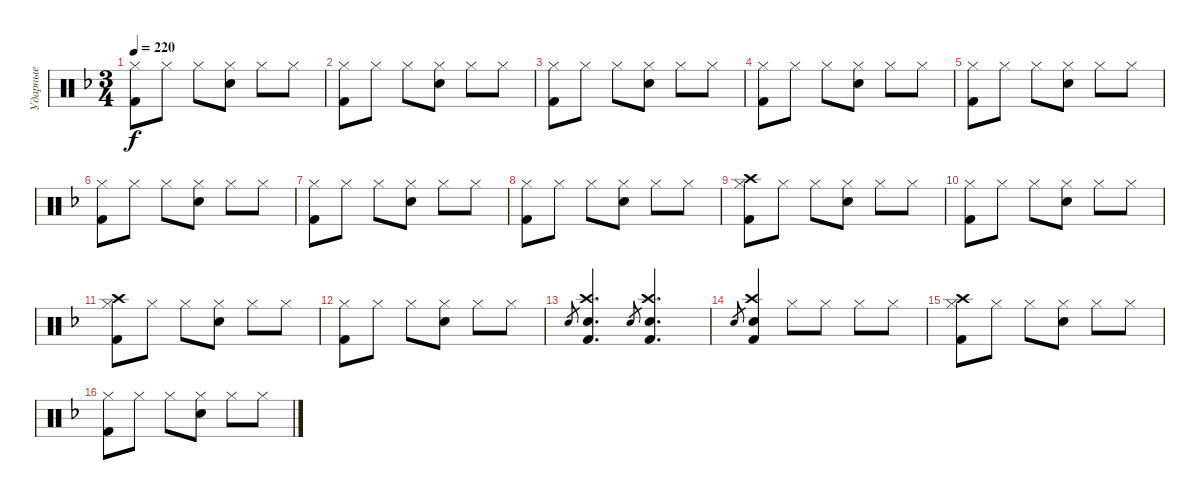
\track ("Ударные" "Ударные") {instrument percussion}
\staff {score}
\articulation defaults
\ts (3 4)
\tempo 220
\clef neutral
\ks f
("Hi-Hat (closed)" "Kick (hit) 2").8{dy f} "Hi-Hat (closed)".8 "Hi-Hat (closed)".8 ("Hi-Hat (closed)" "Electric Snare (hit)").8 "Hi-Hat (closed)".8 "Hi-Hat (closed)".8 |
("Hi-Hat (closed)" "Kick (hit) 2").8 "Hi-Hat (closed)".8 "Hi-Hat (closed)".8 ("Hi-Hat (closed)" "Electric Snare (hit)").8 "Hi-Hat (closed)".8 "Hi-Hat (closed)".8 |
("Hi-Hat (closed)" "Kick (hit) 2").8 "Hi-Hat (closed)".8 "Hi-Hat (closed)".8 ("Hi-Hat (closed)" "Electric Snare (hit)").8 "Hi-Hat (closed)".8 "Hi-Hat (closed)".8 |
("Hi-Hat (closed)" "Kick (hit) 2").8 "Hi-Hat (closed)".8 "Hi-Hat (closed)".8 ("Hi-Hat (closed)" "Electric Snare (hit)").8 "Hi-Hat (closed)".8 "Hi-Hat (closed)".8 |
("Hi-Hat (closed)" "Kick (hit) 2").8 "Hi-Hat (closed)".8 "Hi-Hat (closed)".8 ("Hi-Hat (closed)" "Electric Snare (hit)").8 "Hi-Hat (closed)".8 "Hi-Hat (closed)".8 |
("Hi-Hat (closed)" "Kick (hit) 2").8 "Hi-Hat (closed)".8 "Hi-Hat (closed)".8 ("Hi-Hat (closed)" "Electric Snare (hit)").8 "Hi-Hat (closed)".8 "Hi-Hat (closed)".8 |
("Hi-Hat (closed)" "Kick (hit) 2").8 "Hi-Hat (closed)".8 "Hi-Hat (closed)".8 ("Hi-Hat (closed)" "Electric Snare (hit)").8 "Hi-Hat (closed)".8 "Hi-Hat (closed)".8 |
("Hi-Hat (closed)" "Kick (hit) 2").8 "Hi-Hat (closed)".8 "Hi-Hat (closed)".8 ("Hi-Hat (closed)" "Electric Snare (hit)").8 "Hi-Hat (closed)".8 "Hi-Hat (closed)".8 |
("Crash high (hit)" "Hi-Hat (closed)" "Kick (hit) 2").8 "Hi-Hat (closed)".8 "Hi-Hat (closed)".8 ("Hi-Hat (closed)" "Electric Snare (hit)").8 "Hi-Hat (closed)".8 "Hi-Hat (closed)".8 |
("Hi-Hat (closed)" "Kick (hit) 2").8 "Hi-Hat (closed)".8 "Hi-Hat (closed)".8 ("Hi-Hat (closed)" "Electric Snare (hit)").8 "Hi-Hat (closed)".8 "Hi-Hat (closed)".8 |
("Crash high (hit)" "Hi-Hat (closed)" "Kick (hit) 2").8 "Hi-Hat (closed)".8 "Hi-Hat (closed)".8 ("Hi-Hat (closed)" "Electric Snare (hit)").8 "Hi-Hat (closed)".8 "Hi-Hat (closed)".8 |
("Hi-Hat (closed)" "Kick (hit) 2").8 "Hi-Hat (closed)".8 "Hi-Hat (closed)".8 ("Hi-Hat (closed)" "Electric Snare (hit)").8 "Hi-Hat (closed)".8 "Hi-Hat (closed)".8 |
"Snare (hit) 2".8{gr} ("Snare (hit) 2" "Crash high (hit)" "Kick (hit) 2").4{d} "Snare (hit) 2".8{gr} ("Snare (hit) 2" "Crash high (hit)" "Kick (hit) 2").4{d} |
"Snare (hit) 2".8{gr} ("Snare (hit) 2" "Crash high (hit)" "Kick (hit) 2").4 "Hi-Hat (closed)".8 "Hi-Hat (closed)".8 "Hi-Hat (closed)".8 "Hi-Hat (closed)".8 |
("Crash high (hit)" "Hi-Hat (closed)" "Kick (hit) 2").8 "Hi-Hat (closed)".8 "Hi-Hat (closed)".8 ("Hi-Hat (closed)" "Electric Snare (hit)").8 "Hi-Hat (closed)".8 "Hi-Hat (closed)".8 |
("Hi-Hat (closed)" "Kick (hit) 2").8 "Hi-Hat (closed)".8 "Hi-Hat (closed)".8 ("Hi-Hat (closed)" "Electric Snare (hit)").8 "Hi-Hat (closed)".8 "Hi-Hat (closed)".8
